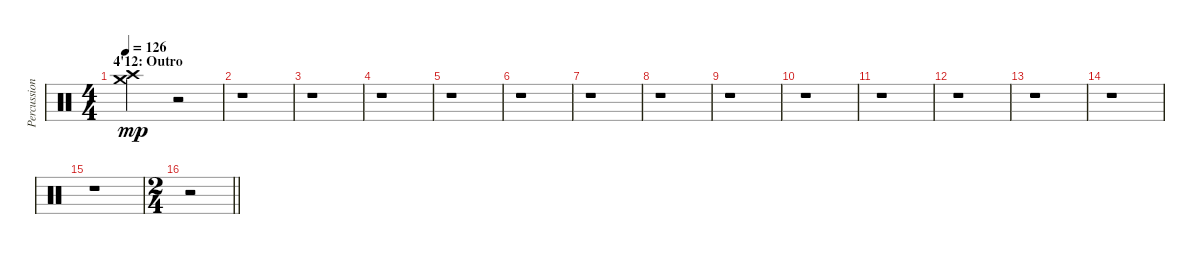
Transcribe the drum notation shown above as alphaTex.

\track ("Percussions" "Percussion") {instrument percussion}
\staff {score}
\articulation defaults
\ts (4 4)
\section ("" "4'12: Outro")
\tempo 126
\clef neutral
\ks c
("Crash medium (hit)" "Crash high (hit)").2{dy mp} r.2 |
r.1 |
r.1 |
r.1 |
r.1 |
r.1 |
r.1 |
r.1 |
r.1 |
r.1 |
r.1 |
r.1 |
r.1 |
r.1 |
r.1 |
\ts (2 4)
\barLineRight lightlight
r.2
